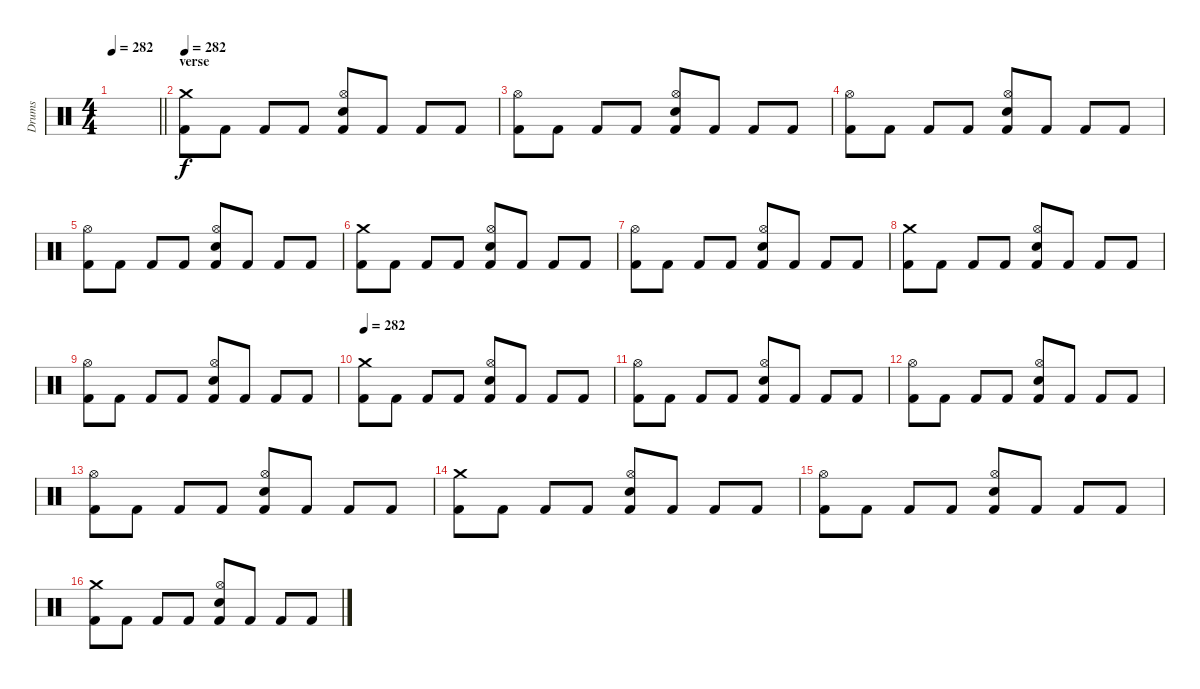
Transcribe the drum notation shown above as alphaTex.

\track ("Drums" "Drums") {instrument percussion}
\staff {score}
\articulation defaults
\ts (4 4)
\tempo 282
\clef neutral
\barLineRight lightlight
\ks c
|
\section ("" "verse")
\tempo 282
("Crash medium (hit)" "Kick (hit) 2").8 "Kick (hit) 2".8 "Kick (hit) 2".8 "Kick (hit) 2".8 ("Hi-Hat (open)" "Snare (hit) 2" "Kick (hit) 2").8 "Kick (hit) 2".8 "Kick (hit) 2".8 "Kick (hit) 2".8 |
("Hi-Hat (open)" "Kick (hit) 2").8 "Kick (hit) 2".8 "Kick (hit) 2".8 "Kick (hit) 2".8 ("Hi-Hat (open)" "Snare (hit) 2" "Kick (hit) 2").8 "Kick (hit) 2".8 "Kick (hit) 2".8 "Kick (hit) 2".8 |
("Hi-Hat (open)" "Kick (hit) 2").8 "Kick (hit) 2".8 "Kick (hit) 2".8 "Kick (hit) 2".8 ("Hi-Hat (open)" "Snare (hit) 2" "Kick (hit) 2").8 "Kick (hit) 2".8 "Kick (hit) 2".8 "Kick (hit) 2".8 |
("Hi-Hat (open)" "Kick (hit) 2").8 "Kick (hit) 2".8 "Kick (hit) 2".8 "Kick (hit) 2".8 ("Hi-Hat (open)" "Snare (hit) 2" "Kick (hit) 2").8 "Kick (hit) 2".8 "Kick (hit) 2".8 "Kick (hit) 2".8 |
("Crash medium (hit)" "Kick (hit) 2").8 "Kick (hit) 2".8 "Kick (hit) 2".8 "Kick (hit) 2".8 ("Hi-Hat (open)" "Snare (hit) 2" "Kick (hit) 2").8 "Kick (hit) 2".8 "Kick (hit) 2".8 "Kick (hit) 2".8 |
("Hi-Hat (open)" "Kick (hit) 2").8 "Kick (hit) 2".8 "Kick (hit) 2".8 "Kick (hit) 2".8 ("Hi-Hat (open)" "Snare (hit) 2" "Kick (hit) 2").8 "Kick (hit) 2".8 "Kick (hit) 2".8 "Kick (hit) 2".8 |
("Crash medium (hit)" "Kick (hit) 2").8 "Kick (hit) 2".8 "Kick (hit) 2".8 "Kick (hit) 2".8 ("Hi-Hat (open)" "Snare (hit) 2" "Kick (hit) 2").8 "Kick (hit) 2".8 "Kick (hit) 2".8 "Kick (hit) 2".8 |
("Hi-Hat (open)" "Kick (hit) 2").8 "Kick (hit) 2".8 "Kick (hit) 2".8 "Kick (hit) 2".8 ("Hi-Hat (open)" "Snare (hit) 2" "Kick (hit) 2").8 "Kick (hit) 2".8 "Kick (hit) 2".8 "Kick (hit) 2".8 |
\tempo 282
("Crash medium (hit)" "Kick (hit) 2").8 "Kick (hit) 2".8 "Kick (hit) 2".8 "Kick (hit) 2".8 ("Hi-Hat (open)" "Snare (hit) 2" "Kick (hit) 2").8 "Kick (hit) 2".8 "Kick (hit) 2".8 "Kick (hit) 2".8 |
("Hi-Hat (open)" "Kick (hit) 2").8 "Kick (hit) 2".8 "Kick (hit) 2".8 "Kick (hit) 2".8 ("Hi-Hat (open)" "Snare (hit) 2" "Kick (hit) 2").8 "Kick (hit) 2".8 "Kick (hit) 2".8 "Kick (hit) 2".8 |
("Hi-Hat (open)" "Kick (hit) 2").8 "Kick (hit) 2".8 "Kick (hit) 2".8 "Kick (hit) 2".8 ("Hi-Hat (open)" "Snare (hit) 2" "Kick (hit) 2").8 "Kick (hit) 2".8 "Kick (hit) 2".8 "Kick (hit) 2".8 |
("Hi-Hat (open)" "Kick (hit) 2").8 "Kick (hit) 2".8 "Kick (hit) 2".8 "Kick (hit) 2".8 ("Hi-Hat (open)" "Snare (hit) 2" "Kick (hit) 2").8 "Kick (hit) 2".8 "Kick (hit) 2".8 "Kick (hit) 2".8 |
("Crash medium (hit)" "Kick (hit) 2").8 "Kick (hit) 2".8 "Kick (hit) 2".8 "Kick (hit) 2".8 ("Hi-Hat (open)" "Snare (hit) 2" "Kick (hit) 2").8 "Kick (hit) 2".8 "Kick (hit) 2".8 "Kick (hit) 2".8 |
("Hi-Hat (open)" "Kick (hit) 2").8 "Kick (hit) 2".8 "Kick (hit) 2".8 "Kick (hit) 2".8 ("Hi-Hat (open)" "Snare (hit) 2" "Kick (hit) 2").8 "Kick (hit) 2".8 "Kick (hit) 2".8 "Kick (hit) 2".8 |
("Crash medium (hit)" "Kick (hit) 2").8 "Kick (hit) 2".8 "Kick (hit) 2".8 "Kick (hit) 2".8 ("Hi-Hat (open)" "Snare (hit) 2" "Kick (hit) 2").8 "Kick (hit) 2".8 "Kick (hit) 2".8 "Kick (hit) 2".8
